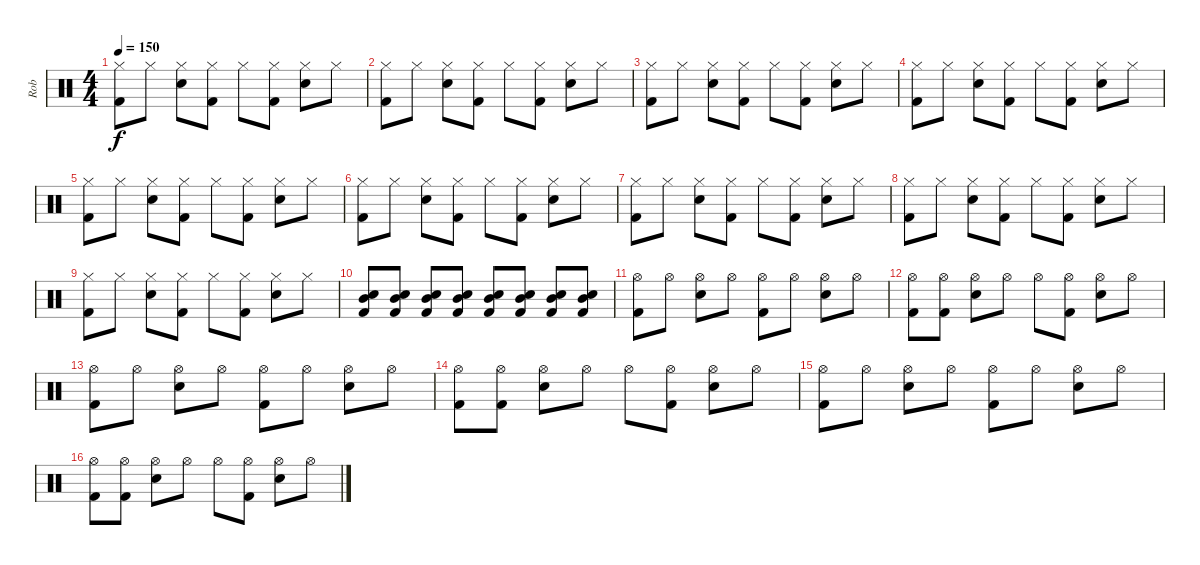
\track ("Rob" "Rob") {instrument percussion}
\staff {score}
\articulation defaults
\ts (4 4)
\tempo 150
\clef neutral
\ks c
("Hi-Hat (closed)" "Kick (hit) 2").8{dy f} "Hi-Hat (closed)".8 ("Hi-Hat (closed)" "Electric Snare (hit)").8 ("Hi-Hat (closed)" "Kick (hit) 2").8 "Hi-Hat (closed)".8 ("Hi-Hat (closed)" "Kick (hit) 2").8 ("Hi-Hat (closed)" "Electric Snare (hit)").8 "Hi-Hat (closed)".8 |
("Hi-Hat (closed)" "Kick (hit) 2").8 "Hi-Hat (closed)".8 ("Hi-Hat (closed)" "Electric Snare (hit)").8 ("Hi-Hat (closed)" "Kick (hit) 2").8 "Hi-Hat (closed)".8 ("Hi-Hat (closed)" "Kick (hit) 2").8 ("Hi-Hat (closed)" "Electric Snare (hit)").8 "Hi-Hat (closed)".8 |
("Hi-Hat (closed)" "Kick (hit) 2").8 "Hi-Hat (closed)".8 ("Hi-Hat (closed)" "Electric Snare (hit)").8 ("Hi-Hat (closed)" "Kick (hit) 2").8 "Hi-Hat (closed)".8 ("Hi-Hat (closed)" "Kick (hit) 2").8 ("Hi-Hat (closed)" "Electric Snare (hit)").8 "Hi-Hat (closed)".8 |
("Hi-Hat (closed)" "Kick (hit) 2").8 "Hi-Hat (closed)".8 ("Hi-Hat (closed)" "Electric Snare (hit)").8 ("Hi-Hat (closed)" "Kick (hit) 2").8 "Hi-Hat (closed)".8 ("Hi-Hat (closed)" "Kick (hit) 2").8 ("Hi-Hat (closed)" "Electric Snare (hit)").8 "Hi-Hat (closed)".8 |
("Hi-Hat (closed)" "Kick (hit) 2").8 "Hi-Hat (closed)".8 ("Hi-Hat (closed)" "Electric Snare (hit)").8 ("Hi-Hat (closed)" "Kick (hit) 2").8 "Hi-Hat (closed)".8 ("Hi-Hat (closed)" "Kick (hit) 2").8 ("Hi-Hat (closed)" "Electric Snare (hit)").8 "Hi-Hat (closed)".8 |
("Hi-Hat (closed)" "Kick (hit) 2").8 "Hi-Hat (closed)".8 ("Hi-Hat (closed)" "Electric Snare (hit)").8 ("Hi-Hat (closed)" "Kick (hit) 2").8 "Hi-Hat (closed)".8 ("Hi-Hat (closed)" "Kick (hit) 2").8 ("Hi-Hat (closed)" "Electric Snare (hit)").8 "Hi-Hat (closed)".8 |
("Hi-Hat (closed)" "Kick (hit) 2").8 "Hi-Hat (closed)".8 ("Hi-Hat (closed)" "Electric Snare (hit)").8 ("Hi-Hat (closed)" "Kick (hit) 2").8 "Hi-Hat (closed)".8 ("Hi-Hat (closed)" "Kick (hit) 2").8 ("Hi-Hat (closed)" "Electric Snare (hit)").8 "Hi-Hat (closed)".8 |
("Hi-Hat (closed)" "Kick (hit) 2").8 "Hi-Hat (closed)".8 ("Hi-Hat (closed)" "Electric Snare (hit)").8 ("Hi-Hat (closed)" "Kick (hit) 2").8 "Hi-Hat (closed)".8 ("Hi-Hat (closed)" "Kick (hit) 2").8 ("Hi-Hat (closed)" "Electric Snare (hit)").8 "Hi-Hat (closed)".8 |
("Hi-Hat (closed)" "Kick (hit) 2").8 "Hi-Hat (closed)".8 ("Hi-Hat (closed)" "Electric Snare (hit)").8 ("Hi-Hat (closed)" "Kick (hit) 2").8 "Hi-Hat (closed)".8 ("Hi-Hat (closed)" "Kick (hit) 2").8 ("Hi-Hat (closed)" "Electric Snare (hit)").8 "Hi-Hat (closed)".8 |
("Mid Tom (hit)" "Electric Snare (hit)" "Kick (hit) 2").8 ("Mid Tom (hit)" "Electric Snare (hit)" "Kick (hit) 2").8 ("Mid Tom (hit)" "Electric Snare (hit)" "Kick (hit) 2").8 ("Mid Tom (hit)" "Electric Snare (hit)" "Kick (hit) 2").8 ("Mid Tom (hit)" "Electric Snare (hit)" "Kick (hit) 2").8 ("Mid Tom (hit)" "Electric Snare (hit)" "Kick (hit) 2").8 ("Mid Tom (hit)" "Electric Snare (hit)" "Kick (hit) 2").8 ("Mid Tom (hit)" "Electric Snare (hit)" "Kick (hit) 2").8 |
("Hi-Hat (open)" "Kick (hit) 2").8 "Hi-Hat (open)".8 ("Hi-Hat (open)" "Electric Snare (hit)").8 "Hi-Hat (open)".8 ("Hi-Hat (open)" "Kick (hit) 2").8 "Hi-Hat (open)".8 ("Hi-Hat (open)" "Electric Snare (hit)").8 "Hi-Hat (open)".8 |
("Hi-Hat (open)" "Kick (hit) 2").8 ("Hi-Hat (open)" "Kick (hit) 2").8 ("Hi-Hat (open)" "Electric Snare (hit)").8 "Hi-Hat (open)".8 "Hi-Hat (open)".8 ("Hi-Hat (open)" "Kick (hit) 2").8 ("Hi-Hat (open)" "Electric Snare (hit)").8 "Hi-Hat (open)".8 |
("Hi-Hat (open)" "Kick (hit) 2").8 "Hi-Hat (open)".8 ("Hi-Hat (open)" "Electric Snare (hit)").8 "Hi-Hat (open)".8 ("Hi-Hat (open)" "Kick (hit) 2").8 "Hi-Hat (open)".8 ("Hi-Hat (open)" "Electric Snare (hit)").8 "Hi-Hat (open)".8 |
("Hi-Hat (open)" "Kick (hit) 2").8 ("Hi-Hat (open)" "Kick (hit) 2").8 ("Hi-Hat (open)" "Electric Snare (hit)").8 "Hi-Hat (open)".8 "Hi-Hat (open)".8 ("Hi-Hat (open)" "Kick (hit) 2").8 ("Hi-Hat (open)" "Electric Snare (hit)").8 "Hi-Hat (open)".8 |
("Hi-Hat (open)" "Kick (hit) 2").8 "Hi-Hat (open)".8 ("Hi-Hat (open)" "Electric Snare (hit)").8 "Hi-Hat (open)".8 ("Hi-Hat (open)" "Kick (hit) 2").8 "Hi-Hat (open)".8 ("Hi-Hat (open)" "Electric Snare (hit)").8 "Hi-Hat (open)".8 |
("Hi-Hat (open)" "Kick (hit) 2").8 ("Hi-Hat (open)" "Kick (hit) 2").8 ("Hi-Hat (open)" "Electric Snare (hit)").8 "Hi-Hat (open)".8 "Hi-Hat (open)".8 ("Hi-Hat (open)" "Kick (hit) 2").8 ("Hi-Hat (open)" "Electric Snare (hit)").8 "Hi-Hat (open)".8
